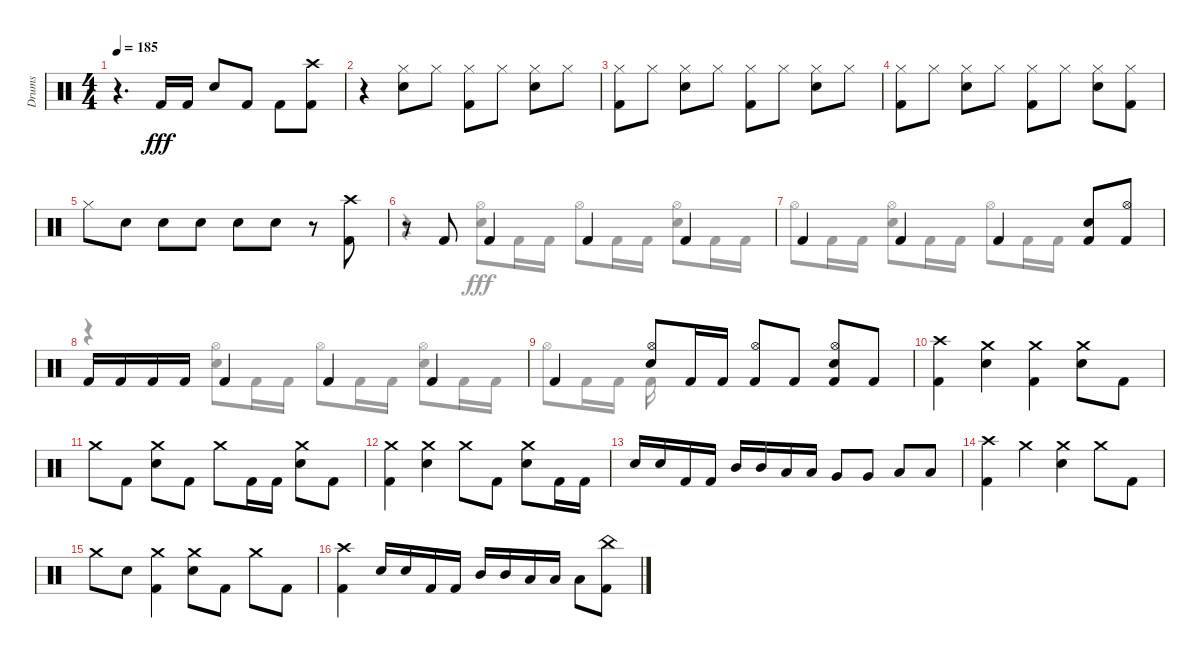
\track ("Drums" "Drums") {instrument percussion}
\staff {score}
\articulation defaults
\voice
\ts (4 4)
\tempo 185
\clef neutral
\ks aminor
r.4{d dy fff} "Kick (hit) 2".16 "Kick (hit) 2".16 "Snare (hit) 2".8 "Kick (hit) 2".8 "Kick (hit) 2".8 ("Crash high (hit)" "Kick (hit) 2").8 |
r.4 ("Snare (hit) 2" "Hi-Hat (closed)").8 "Hi-Hat (closed)".8 ("Kick (hit) 2" "Hi-Hat (closed)").8 "Hi-Hat (closed)".8 ("Snare (hit) 2" "Hi-Hat (closed)").8 "Hi-Hat (closed)".8 |
("Kick (hit) 2" "Hi-Hat (closed)").8 "Hi-Hat (closed)".8 ("Hi-Hat (closed)" "Snare (hit) 2").8 "Hi-Hat (closed)".8 ("Hi-Hat (closed)" "Kick (hit) 2").8 "Hi-Hat (closed)".8 ("Hi-Hat (closed)" "Snare (hit) 2").8 "Hi-Hat (closed)".8 |
("Kick (hit) 2" "Hi-Hat (closed)").8 "Hi-Hat (closed)".8 ("Hi-Hat (closed)" "Snare (hit) 2").8 "Hi-Hat (closed)".8 ("Kick (hit) 2" "Hi-Hat (closed)").8 "Hi-Hat (closed)".8 ("Hi-Hat (closed)" "Snare (hit) 2").8 ("Kick (hit) 2" "Hi-Hat (closed)").8 |
"Hi-Hat (closed)".8 "Snare (hit) 2".8 "Snare (hit) 2".8 "Snare (hit) 2".8 "Snare (hit) 2".8 "Snare (hit) 2".8 r.8 ("Kick (hit) 2" "Crash high (hit)").8 |
r.8 "Kick (hit) 2".8 "Kick (hit) 2".4 "Kick (hit) 2".4 "Kick (hit) 2".4 |
"Kick (hit) 2".4 "Kick (hit) 2".4 "Kick (hit) 2".4 ("Snare (hit) 2" "Kick (hit) 2").8 ("Hi-Hat (open)" "Kick (hit) 2").8 |
"Kick (hit) 2".16 "Kick (hit) 2".16 "Kick (hit) 2".16 "Kick (hit) 2".16 "Kick (hit) 2".4 "Kick (hit) 2".4 "Kick (hit) 2".4 |
"Kick (hit) 2".4 ("Snare (hit) 2" "Hi-Hat (open)").8 "Kick (hit) 2".16 "Kick (hit) 2".16 ("Hi-Hat (open)" "Kick (hit) 2").8 "Kick (hit) 2".8 ("Snare (hit) 2" "Kick (hit) 2" "Hi-Hat (open)").8 "Kick (hit) 2".8 |
("Kick (hit) 2" "Crash high (hit)").4 ("Crash medium (hit)" "Snare (hit) 2").4 ("Kick (hit) 2" "Crash medium (hit)").4 ("Crash medium (hit)" "Snare (hit) 2").8 "Kick (hit) 2".8 |
"Crash medium (hit)".8 "Kick (hit) 2".8 ("Snare (hit) 2" "Crash medium (hit)").8 "Kick (hit) 2".8 "Crash medium (hit)".8 "Kick (hit) 2".16 "Kick (hit) 2".16 ("Crash medium (hit)" "Snare (hit) 2").8 "Kick (hit) 2".8 |
("Kick (hit) 2" "Crash medium (hit)").4 ("Crash medium (hit)" "Snare (hit) 2").4 "Crash medium (hit)".8 "Kick (hit) 2".8 ("Snare (hit) 2" "Crash medium (hit)").8 "Kick (hit) 2".16 "Kick (hit) 2".16 |
"Snare (hit) 2".16 "Snare (hit) 2".16 "Kick (hit) 2".16 "Kick (hit) 2".16 "Mid Tom (hit)".16 "Mid Tom (hit)".16 "Low Tom (hit)".16 "Low Tom (hit)".16 "Very Low Tom (hit)".8 "Very Low Tom (hit)".8 "Low Floor Tom (hit)".8 "Low Floor Tom (hit)".8 |
("Kick (hit) 2" "Crash high (hit)").4 "Crash medium (hit)".4 ("Crash medium (hit)" "Snare (hit) 2").4 "Crash medium (hit)".8 "Kick (hit) 2".8 |
"Crash medium (hit)".8 "Snare (hit) 2".8 ("Crash medium (hit)" "Kick (hit) 2").4 ("Crash medium (hit)" "Snare (hit) 2").8 "Kick (hit) 2".8 "Crash medium (hit)".8 "Kick (hit) 2".8 |
("Crash high (hit)" "Kick (hit) 2").4 "Snare (hit) 2".16 "Snare (hit) 2".16 "Kick (hit) 2".16 "Kick (hit) 2".16 "Mid Tom (hit)".16 "Mid Tom (hit)".16 "Low Tom (hit)".16 "Low Tom (hit)".16 "Low Floor Tom (hit)".8 ("Kick (hit) 2" "China (hit)").8
\voice
\clef neutral
\ottava regular
\simile none
\ks aminor
|
|
|
|
|
r.4 ("Hi-Hat (open)" "Snare (hit) 2").8 "Kick (hit) 2".16 "Kick (hit) 2".16 "Hi-Hat (open)".8 "Kick (hit) 2".16 "Kick (hit) 2".16 ("Snare (hit) 2" "Hi-Hat (open)").8 "Kick (hit) 2".16 "Kick (hit) 2".16 |
"Hi-Hat (open)".8 "Kick (hit) 2".16 "Kick (hit) 2".16 ("Snare (hit) 2" "Hi-Hat (open)").8 "Kick (hit) 2".16 "Kick (hit) 2".16 "Hi-Hat (open)".8 "Kick (hit) 2".16 "Kick (hit) 2".16 |
r.4 ("Hi-Hat (open)" "Snare (hit) 2").8 "Kick (hit) 2".16 "Kick (hit) 2".16 "Hi-Hat (open)".8 "Kick (hit) 2".16 "Kick (hit) 2".16 ("Snare (hit) 2" "Hi-Hat (open)").8 "Kick (hit) 2".16 "Kick (hit) 2".16 |
"Hi-Hat (open)".8 "Kick (hit) 2".16 "Kick (hit) 2".16 "Kick (hit) 2".16 |
|
|
|
|
|
|
